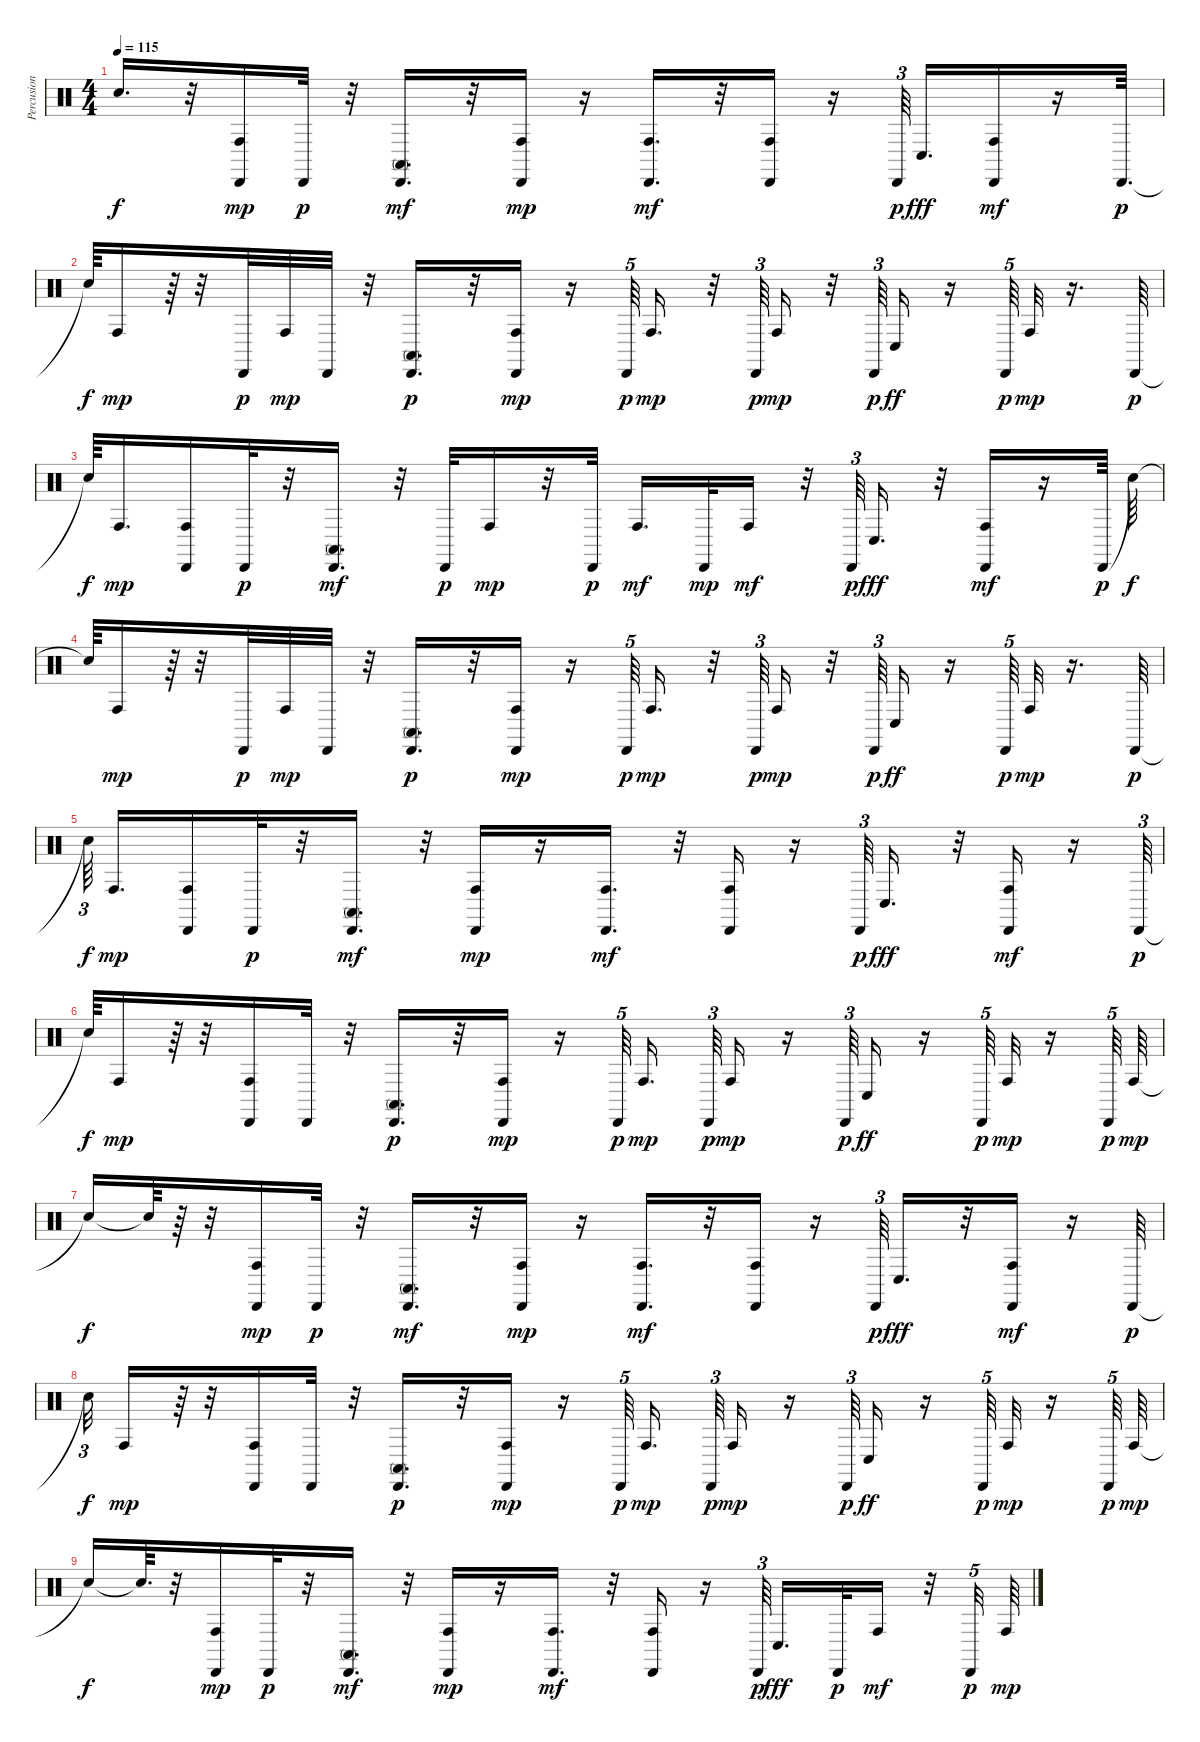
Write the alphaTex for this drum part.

\track ("Percusion" "Percusion") {instrument percussion}
\staff {score}
\articulation defaults
\ts (4 4)
\tempo 115
\clef neutral
\ks c "Snare (hit)"{t}.16{d dy f}
r.32 ("Cabasa (hit)" "Conga high (hit)").16{dy mp} "Cabasa (hit)".32{dy p} r.32 ("Cabasa (hit)" "Conga high (mute)").16{d dy mf} r.32 ("Cabasa (hit)" "Conga high (hit)").16{dy mp} r.16 ("Cabasa (hit)" "Conga high (hit)").16{d dy mf} r.32 ("Cabasa (hit)" "Conga high (hit)").16 r.16 "Cabasa (hit)".64{tu (3 2) dy p beam splitsecondary} "Conga low (hit)".16{d dy fff} ("Cabasa (hit)" "Conga high (hit)").16{dy mf} r.16 "Cabasa (hit)".64{d dy p} |
"Snare (hit)"{t}.64{dy f} "Conga high (hit)".16{dy mp} r.64 r.32 "Cabasa (hit)".32{dy p} "Conga high (hit)".32{dy mp} "Cabasa (hit)".32 r.32 ("Cabasa (hit)" "Conga high (mute)").16{d dy p} r.32 ("Cabasa (hit)" "Conga high (hit)").16{dy mp} r.16 "Cabasa (hit)".64{tu (5 4) dy p} "Conga high (hit)".16{d dy mp} r.32 "Cabasa (hit)".64{tu (3 2) dy p} "Conga high (hit)".16{dy mp} r.32 "Cabasa (hit)".64{tu (3 2) dy p} "Conga low (hit)".16{dy ff} r.16 "Cabasa (hit)".64{tu (5 4) dy p} "Conga high (hit)".32{dy mp} r.16{d} "Cabasa (hit)".64{dy p} |
"Snare (hit)"{t}.64{dy f} "Conga high (hit)".16{d dy mp} ("Cabasa (hit)" "Conga high (hit)").16 "Cabasa (hit)".32{dy p} r.32 ("Cabasa (hit)" "Conga high (mute)").16{d dy mf} r.32 "Cabasa (hit)".32{dy p} "Conga high (hit)".16{dy mp} r.32 "Cabasa (hit)".32{dy p} "Conga high (hit)".16{d dy mf} "Cabasa (hit)".32{dy mp} "Conga high (hit)".16{dy mf} r.32 "Cabasa (hit)".64{tu (3 2) dy p} "Conga low (hit)".16{d dy fff} r.32 ("Cabasa (hit)" "Conga high (hit)").16{dy mf} r.16 "Cabasa (hit)".64{dy p} "Snare (hit)"{t}.64{dy f} |
"Snare (hit)"{t}.64 "Conga high (hit)".16{dy mp} r.64 r.32 "Cabasa (hit)".32{dy p} "Conga high (hit)".32{dy mp} "Cabasa (hit)".32 r.32 ("Cabasa (hit)" "Conga high (mute)").16{d dy p} r.32 ("Cabasa (hit)" "Conga high (hit)").16{dy mp} r.16 "Cabasa (hit)".64{tu (5 4) dy p} "Conga high (hit)".16{d dy mp} r.32 "Cabasa (hit)".64{tu (3 2) dy p} "Conga high (hit)".16{dy mp} r.32 "Cabasa (hit)".64{tu (3 2) dy p} "Conga low (hit)".16{dy ff} r.16 "Cabasa (hit)".64{tu (5 4) dy p} "Conga high (hit)".32{dy mp} r.16{d} "Cabasa (hit)".64{dy p} |
"Snare (hit)"{t}.64{tu (3 2) dy f beam splitsecondary} "Conga high (hit)".16{d dy mp} ("Cabasa (hit)" "Conga high (hit)").16 "Cabasa (hit)".32{dy p} r.32 ("Cabasa (hit)" "Conga high (mute)").16{d dy mf} r.32 ("Cabasa (hit)" "Conga high (hit)").16{dy mp} r.16 ("Cabasa (hit)" "Conga high (hit)").16{d dy mf} r.32 ("Cabasa (hit)" "Conga high (hit)").16 r.16 "Cabasa (hit)".64{tu (3 2) dy p} "Conga low (hit)".16{d dy fff} r.32 ("Cabasa (hit)" "Conga high (hit)").16{dy mf} r.16 "Cabasa (hit)".64{tu (3 2) dy p} |
"Snare (hit)"{t}.64{dy f} "Conga high (hit)".16{dy mp} r.64 r.32 ("Cabasa (hit)" "Conga high (hit)").16 "Cabasa (hit)".32 r.32 ("Cabasa (hit)" "Conga high (mute)").16{d dy p} r.32 ("Cabasa (hit)" "Conga high (hit)").16{dy mp} r.16 "Cabasa (hit)".64{tu (5 4) dy p beam splitsecondary} "Conga high (hit)".16{d dy mp beam splitsecondary} "Cabasa (hit)".64{tu (3 2) dy p} "Conga high (hit)".16{dy mp} r.16 "Cabasa (hit)".64{tu (3 2) dy p} "Conga low (hit)".16{dy ff} r.16 "Cabasa (hit)".64{tu (5 4) dy p} "Conga high (hit)".32{dy mp} r.16 "Cabasa (hit)".64{tu (5 4) dy p} "Conga high (hit)".64{dy mp} |
"Snare (hit)"{t}.16{dy f} "Snare (hit)"{t}.64 r.64 r.32 ("Cabasa (hit)" "Conga high (hit)").16{dy mp} "Cabasa (hit)".32{dy p} r.32 ("Cabasa (hit)" "Conga high (mute)").16{d dy mf} r.32 ("Cabasa (hit)" "Conga high (hit)").16{dy mp} r.16 ("Cabasa (hit)" "Conga high (hit)").16{d dy mf} r.32 ("Cabasa (hit)" "Conga high (hit)").16 r.16 "Cabasa (hit)".64{tu (3 2) dy p} "Conga low (hit)".16{d dy fff} r.32 ("Cabasa (hit)" "Conga high (hit)").16{dy mf} r.16 "Cabasa (hit)".64{dy p} |
"Snare (hit)"{t}.32{tu (3 2) dy f} "Conga high (hit)".16{dy mp} r.64 r.32 ("Cabasa (hit)" "Conga high (hit)").16 "Cabasa (hit)".32 r.32 ("Cabasa (hit)" "Conga high (mute)").16{d dy p} r.32 ("Cabasa (hit)" "Conga high (hit)").16{dy mp} r.16 "Cabasa (hit)".64{tu (5 4) dy p beam splitsecondary} "Conga high (hit)".16{d dy mp beam splitsecondary} "Cabasa (hit)".64{tu (3 2) dy p} "Conga high (hit)".16{dy mp} r.16 "Cabasa (hit)".64{tu (3 2) dy p} "Conga low (hit)".16{dy ff} r.16 "Cabasa (hit)".64{tu (5 4) dy p} "Conga high (hit)".32{dy mp} r.16 "Cabasa (hit)".64{tu (5 4) dy p} "Conga high (hit)".64{dy mp} |
"Snare (hit)"{t}.16{dy f} "Snare (hit)"{t}.64{d} r.32 ("Cabasa (hit)" "Conga high (hit)").16{dy mp} "Cabasa (hit)".32{dy p} r.32 ("Cabasa (hit)" "Conga high (mute)").16{d dy mf} r.32 ("Cabasa (hit)" "Conga high (hit)").16{dy mp} r.16 ("Cabasa (hit)" "Conga high (hit)").16{d dy mf} r.32 ("Cabasa (hit)" "Conga high (hit)").16 r.16 "Cabasa (hit)".64{tu (3 2) dy p} "Conga low (hit)".16{d dy fff} "Cabasa (hit)".32{dy p} "Conga high (hit)".16{dy mf} r.32 "Cabasa (hit)".32{tu (5 4) dy p} "Conga high (hit)".64{dy mp}
